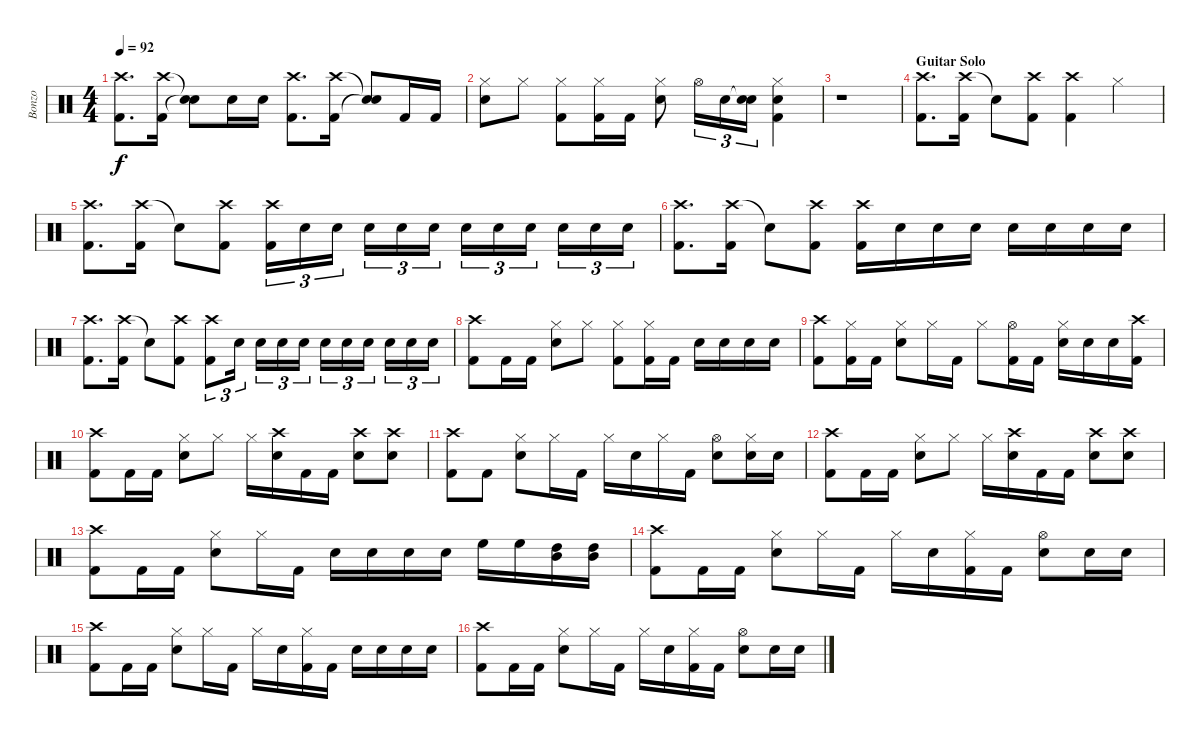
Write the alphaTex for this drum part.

\track ("Bonzo" "Bonzo") {instrument percussion}
\staff {score}
\articulation defaults
\ts (4 4)
\tempo 92
\clef neutral
\ks c
("Crash high (hit)" "Kick (hit) 2").8{d dy f} ("Crash high (hit)" "Kick (hit) 2").16 ("Snare (hit)"{t} "Snare (hit)"{t}).8 "Snare (hit) 2".16 "Snare (hit) 2".16 ("Crash high (hit)" "Kick (hit) 2").8{d} ("Crash high (hit)" "Kick (hit) 2").16 ("Snare (hit)"{t} "Snare (hit)"{t}).8 "Kick (hit) 2".16 "Kick (hit) 2".16 |
("Hi-Hat (closed)" "Snare (hit) 2").8 "Hi-Hat (closed)".8 ("Hi-Hat (closed)" "Kick (hit) 2").8 ("Hi-Hat (closed)" "Kick (hit) 2").16 "Kick (hit) 2".16 ("Hi-Hat (closed)" "Snare (hit) 2").8 "Hi-Hat (open)".16{tu (3 2)} "Snare (hit) 2".16{tu (3 2)} ("Snare (hit)"{t} "Snare (hit) 2").16{tu (3 2)} ("Hi-Hat (closed)" "Snare (hit) 2" "Kick (hit) 2").4 |
r.1 |
\section ("" "Guitar Solo")
("Crash high (hit)" "Kick (hit) 2").8{d} ("Crash high (hit)" "Kick (hit) 2").16 "Snare (hit)"{t}.8 ("Crash high (hit)" "Kick (hit) 2").8 ("Crash high (hit)" "Kick (hit) 2").4 "Hi-Hat (closed)".4 |
("Crash high (hit)" "Kick (hit) 2").8{d} ("Crash high (hit)" "Kick (hit) 2").16 "Snare (hit)"{t}.8 ("Crash high (hit)" "Kick (hit) 2").8 ("Crash high (hit)" "Kick (hit) 2").16{tu (3 2)} "Snare (hit) 2".16{tu (3 2)} "Snare (hit) 2".16{tu (3 2)} "Snare (hit) 2".16{tu (3 2)} "Snare (hit) 2".16{tu (3 2)} "Snare (hit) 2".16{tu (3 2)} "Snare (hit) 2".16{tu (3 2)} "Snare (hit) 2".16{tu (3 2)} "Snare (hit) 2".16{tu (3 2)} "Snare (hit) 2".16{tu (3 2)} "Snare (hit) 2".16{tu (3 2)} "Snare (hit) 2".16{tu (3 2)} |
("Crash high (hit)" "Kick (hit) 2").8{d} ("Crash high (hit)" "Kick (hit) 2").16 "Snare (hit)"{t}.8 ("Crash high (hit)" "Kick (hit) 2").8 ("Crash high (hit)" "Kick (hit) 2").16 "Snare (hit) 2".16 "Snare (hit) 2".16 "Snare (hit) 2".16 "Snare (hit) 2".16 "Snare (hit) 2".16 "Snare (hit) 2".16 "Snare (hit) 2".16 |
("Crash high (hit)" "Kick (hit) 2").8{d} ("Crash high (hit)" "Kick (hit) 2").16 "Snare (hit)"{t}.8 ("Crash high (hit)" "Kick (hit) 2").8 ("Crash high (hit)" "Kick (hit) 2").8{tu (3 2)} "Snare (hit) 2".16{tu (3 2)} "Snare (hit) 2".16{tu (3 2)} "Snare (hit) 2".16{tu (3 2)} "Snare (hit) 2".16{tu (3 2)} "Snare (hit) 2".16{tu (3 2)} "Snare (hit) 2".16{tu (3 2)} "Snare (hit) 2".16{tu (3 2)} "Snare (hit) 2".16{tu (3 2)} "Snare (hit) 2".16{tu (3 2)} "Snare (hit) 2".16{tu (3 2)} |
("Crash high (hit)" "Kick (hit) 2").8 "Kick (hit) 2".16 "Kick (hit) 2".16 ("Hi-Hat (closed)" "Snare (hit) 2").8 "Hi-Hat (closed)".8 ("Hi-Hat (closed)" "Kick (hit) 2").8 ("Hi-Hat (closed)" "Kick (hit) 2").16 "Kick (hit) 2".16 "Snare (hit) 2".16 "Snare (hit) 2".16 "Snare (hit) 2".16 "Snare (hit) 2".16 |
("Crash high (hit)" "Kick (hit) 2").8 ("Hi-Hat (closed)" "Kick (hit) 2").16 "Kick (hit) 2".16 ("Hi-Hat (closed)" "Snare (hit) 2").8 "Hi-Hat (closed)".16 "Kick (hit) 2".16 "Hi-Hat (closed)".8 ("Hi-Hat (open)" "Kick (hit) 2").16 "Kick (hit) 2".16 ("Hi-Hat (closed)" "Snare (hit) 2").16 "Snare (hit) 2".16 "Snare (hit) 2".16 ("Crash high (hit)" "Kick (hit) 2").16 |
("Crash high (hit)" "Kick (hit) 2").8 "Kick (hit) 2".16 "Kick (hit) 2".16 ("Hi-Hat (closed)" "Snare (hit) 2").8 "Hi-Hat (closed)".8 "Hi-Hat (closed)".16 ("Crash high (hit)" "Snare (hit) 2").16 "Kick (hit) 2".16 "Kick (hit) 2".16 ("Crash high (hit)" "Snare (hit) 2").8 ("Crash high (hit)" "Snare (hit) 2").8 |
("Crash high (hit)" "Kick (hit) 2").8 "Kick (hit) 2".8 ("Hi-Hat (closed)" "Snare (hit) 2").8 "Hi-Hat (closed)".16 "Kick (hit) 2".16 "Hi-Hat (closed)".16 "Snare (hit) 2".16 "Hi-Hat (closed)".16 "Kick (hit) 2".16 ("Hi-Hat (open)" "Snare (hit) 2").8 ("Hi-Hat (closed)" "Snare (hit) 2").16 "Snare (hit) 2".16 |
("Crash high (hit)" "Kick (hit) 2").8 "Kick (hit) 2".16 "Kick (hit) 2".16 ("Hi-Hat (closed)" "Snare (hit) 2").8 "Hi-Hat (closed)".8 "Hi-Hat (closed)".16 ("Crash high (hit)" "Snare (hit) 2").16 "Kick (hit) 2".16 "Kick (hit) 2".16 ("Crash high (hit)" "Snare (hit) 2").8 ("Crash high (hit)" "Snare (hit) 2").8 |
("Crash high (hit)" "Kick (hit) 2").8 "Kick (hit) 2".16 "Kick (hit) 2".16 ("Hi-Hat (closed)" "Snare (hit) 2").8 "Hi-Hat (closed)".16 "Kick (hit) 2".16 "Snare (hit) 2".16 "Snare (hit) 2".16 "Snare (hit) 2".16 "Snare (hit) 2".16 "High Floor Tom (hit)".16 "High Floor Tom (hit)".16 ("High Tom (hit)" "Mid Tom (hit)").16 ("High Tom (hit)" "Mid Tom (hit)").16 |
("Crash high (hit)" "Kick (hit) 2").8 "Kick (hit) 2".16 "Kick (hit) 2".16 ("Hi-Hat (closed)" "Snare (hit) 2").8 "Hi-Hat (closed)".16 "Kick (hit) 2".16 "Hi-Hat (closed)".16 "Snare (hit) 2".16 ("Hi-Hat (closed)" "Kick (hit) 2").16 "Kick (hit) 2".16 ("Hi-Hat (open)" "Snare (hit) 2").8 "Snare (hit) 2".16 "Snare (hit) 2".16 |
("Crash high (hit)" "Kick (hit) 2").8 "Kick (hit) 2".16 "Kick (hit) 2".16 ("Hi-Hat (closed)" "Snare (hit) 2").8 "Hi-Hat (closed)".16 "Kick (hit) 2".16 "Hi-Hat (closed)".16 "Snare (hit) 2".16 ("Hi-Hat (closed)" "Kick (hit) 2").16 "Kick (hit) 2".16 "Snare (hit) 2".16 "Snare (hit) 2".16 "Snare (hit) 2".16 "Snare (hit) 2".16 |
("Crash high (hit)" "Kick (hit) 2").8 "Kick (hit) 2".16 "Kick (hit) 2".16 ("Hi-Hat (closed)" "Snare (hit) 2").8 "Hi-Hat (closed)".16 "Kick (hit) 2".16 "Hi-Hat (closed)".16 "Snare (hit) 2".16 ("Hi-Hat (closed)" "Kick (hit) 2").16 "Kick (hit) 2".16 ("Hi-Hat (open)" "Snare (hit) 2").8 "Snare (hit) 2".16 "Snare (hit) 2".16
